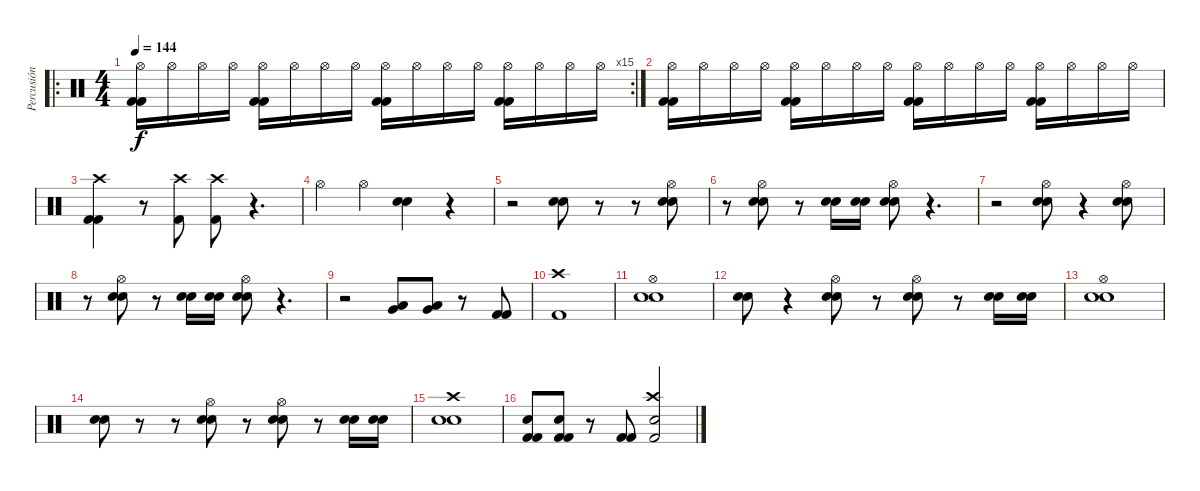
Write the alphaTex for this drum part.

\track ("Percusión" "Percusión") {instrument percussion}
\staff {score}
\articulation defaults
\ro
\rc 15
\ts (4 4)
\tempo 144
\clef neutral
\ks c
("Hi-Hat (open)" "Kick (hit) 2" "Kick (hit) 2").16{dy f} "Hi-Hat (open)".16 "Hi-Hat (open)".16 "Hi-Hat (open)".16 ("Hi-Hat (open)" "Kick (hit) 2" "Kick (hit) 2").16 "Hi-Hat (open)".16 "Hi-Hat (open)".16 "Hi-Hat (open)".16 ("Hi-Hat (open)" "Kick (hit) 2" "Kick (hit) 2").16 "Hi-Hat (open)".16 "Hi-Hat (open)".16 "Hi-Hat (open)".16 ("Hi-Hat (open)" "Kick (hit) 2" "Kick (hit) 2").16 "Hi-Hat (open)".16 "Hi-Hat (open)".16 "Hi-Hat (open)".16 |
("Hi-Hat (open)" "Kick (hit) 2" "Kick (hit) 2").16 "Hi-Hat (open)".16 "Hi-Hat (open)".16 "Hi-Hat (open)".16 ("Hi-Hat (open)" "Kick (hit) 2" "Kick (hit) 2").16 "Hi-Hat (open)".16 "Hi-Hat (open)".16 "Hi-Hat (open)".16 ("Hi-Hat (open)" "Kick (hit) 2" "Kick (hit) 2").16 "Hi-Hat (open)".16 "Hi-Hat (open)".16 "Hi-Hat (open)".16 ("Hi-Hat (open)" "Kick (hit) 2" "Kick (hit) 2").16 "Hi-Hat (open)".16 "Hi-Hat (open)".16 "Hi-Hat (open)".16 |
("Crash high (hit)" "Kick (hit) 2" "Kick (hit) 2").4 r.8 ("Crash high (hit)" "Kick (hit) 2").8 ("Crash high (hit)" "Kick (hit) 2").8 r.4{d} |
"Hi-Hat (open)".4 "Hi-Hat (open)".4 ("Snare (hit) 2" "Snare (hit) 2").4 r.4 |
r.2 ("Snare (hit) 2" "Snare (hit) 2").8 r.8 r.8 ("Hi-Hat (open)" "Snare (hit) 2" "Snare (hit) 2").8 |
r.8 ("Hi-Hat (open)" "Snare (hit) 2" "Snare (hit) 2").8 r.8 ("Snare (hit) 2" "Snare (hit) 2").16 ("Snare (hit) 2" "Snare (hit) 2").16 ("Hi-Hat (open)" "Snare (hit) 2" "Snare (hit) 2").8 r.4{d} |
r.2 ("Hi-Hat (open)" "Snare (hit) 2" "Snare (hit) 2").8 r.4 ("Hi-Hat (open)" "Snare (hit) 2" "Snare (hit) 2").8 |
r.8 ("Hi-Hat (open)" "Snare (hit) 2" "Snare (hit) 2").8 r.8 ("Snare (hit) 2" "Snare (hit) 2").16 ("Snare (hit) 2" "Snare (hit) 2").16 ("Hi-Hat (open)" "Snare (hit) 2" "Snare (hit) 2").8 r.4{d} |
r.2 ("Low Tom (hit)" "Very Low Tom (hit)").8 ("Low Tom (hit)" "Very Low Tom (hit)").8 r.8 ("Kick (hit) 2" "Kick (hit) 2").8 |
("Crash high (hit)" "Kick (hit) 2").1 |
("Hi-Hat (open)" "Snare (hit) 2" "Snare (hit) 2").1 |
("Snare (hit) 2" "Snare (hit) 2").8 r.4 ("Hi-Hat (open)" "Snare (hit) 2" "Snare (hit) 2").8 r.8 ("Hi-Hat (open)" "Snare (hit) 2" "Snare (hit) 2").8 r.8 ("Snare (hit) 2" "Snare (hit) 2").16 ("Snare (hit) 2" "Snare (hit) 2").16 |
("Hi-Hat (open)" "Snare (hit) 2" "Snare (hit) 2").1 |
("Snare (hit) 2" "Snare (hit) 2").8 r.8 r.8 ("Hi-Hat (open)" "Snare (hit) 2" "Snare (hit) 2").8 r.8 ("Hi-Hat (open)" "Snare (hit) 2" "Snare (hit) 2").8 r.8 ("Snare (hit) 2" "Snare (hit) 2").16 ("Snare (hit) 2" "Snare (hit) 2").16 |
("Crash high (hit)" "Snare (hit) 2" "Snare (hit) 2").1 |
("Snare (hit) 2" "Kick (hit) 2" "Kick (hit) 2").8 ("Snare (hit) 2" "Kick (hit) 2" "Kick (hit) 2").8 r.8 ("Kick (hit) 2" "Kick (hit) 2").8 ("Crash high (hit)" "Snare (hit) 2" "Kick (hit) 2").2
